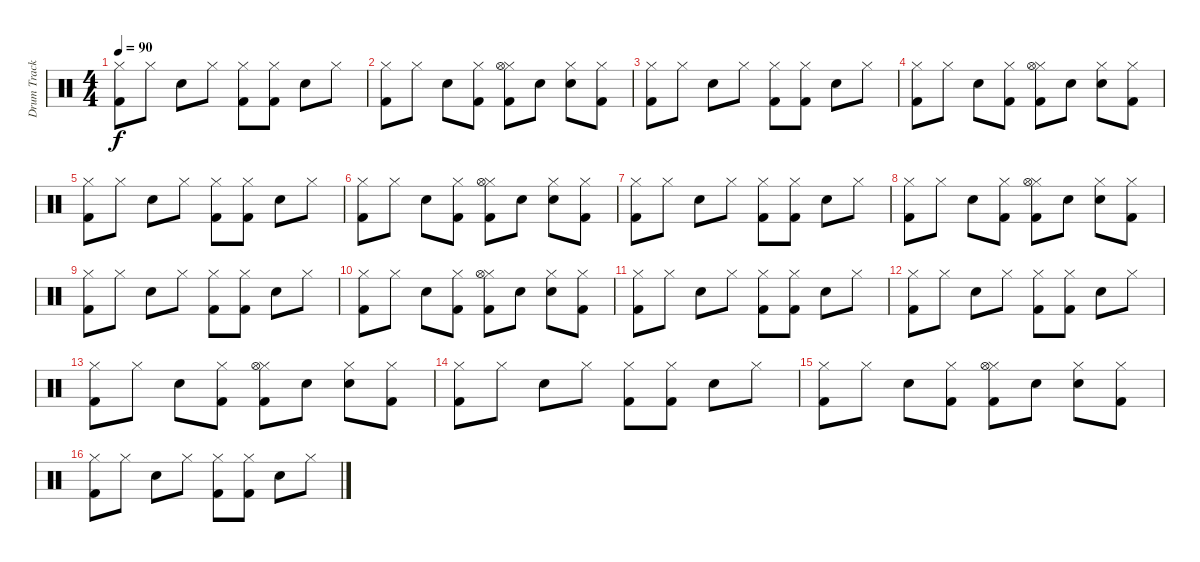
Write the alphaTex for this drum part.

\track ("Drum Track" "Drum Track") {instrument percussion}
\staff {score}
\articulation defaults
\ts (4 4)
\tempo 90
\clef neutral
\ks c
("Kick (hit) 2" "Hi-Hat (closed)").8{dy f} "Hi-Hat (closed)".8 "Electric Snare (hit)".8 "Hi-Hat (closed)".8 ("Kick (hit) 2" "Hi-Hat (closed)").8 ("Kick (hit) 2" "Hi-Hat (closed)").8 "Snare (hit) 2".8 "Hi-Hat (closed)".8 |
("Kick (hit) 2" "Hi-Hat (closed)").8 "Hi-Hat (closed)".8 "Electric Snare (hit)".8 ("Kick (hit) 2" "Hi-Hat (closed)").8 ("Kick (hit) 2" "Hi-Hat (closed)" "Hi-Hat (open)").8 "Electric Snare (hit)".8 ("Snare (hit) 2" "Hi-Hat (closed)").8 ("Kick (hit) 2" "Hi-Hat (closed)").8 |
("Kick (hit) 2" "Hi-Hat (closed)").8 "Hi-Hat (closed)".8 "Electric Snare (hit)".8 "Hi-Hat (closed)".8 ("Kick (hit) 2" "Hi-Hat (closed)").8 ("Kick (hit) 2" "Hi-Hat (closed)").8 "Snare (hit) 2".8 "Hi-Hat (closed)".8 |
("Kick (hit) 2" "Hi-Hat (closed)").8 "Hi-Hat (closed)".8 "Electric Snare (hit)".8 ("Kick (hit) 2" "Hi-Hat (closed)").8 ("Kick (hit) 2" "Hi-Hat (closed)" "Hi-Hat (open)").8 "Electric Snare (hit)".8 ("Snare (hit) 2" "Hi-Hat (closed)").8 ("Kick (hit) 2" "Hi-Hat (closed)").8 |
("Kick (hit) 2" "Hi-Hat (closed)").8 "Hi-Hat (closed)".8 "Electric Snare (hit)".8 "Hi-Hat (closed)".8 ("Kick (hit) 2" "Hi-Hat (closed)").8 ("Kick (hit) 2" "Hi-Hat (closed)").8 "Snare (hit) 2".8 "Hi-Hat (closed)".8 |
("Kick (hit) 2" "Hi-Hat (closed)").8 "Hi-Hat (closed)".8 "Electric Snare (hit)".8 ("Kick (hit) 2" "Hi-Hat (closed)").8 ("Kick (hit) 2" "Hi-Hat (closed)" "Hi-Hat (open)").8 "Electric Snare (hit)".8 ("Snare (hit) 2" "Hi-Hat (closed)").8 ("Kick (hit) 2" "Hi-Hat (closed)").8 |
("Kick (hit) 2" "Hi-Hat (closed)").8 "Hi-Hat (closed)".8 "Electric Snare (hit)".8 "Hi-Hat (closed)".8 ("Kick (hit) 2" "Hi-Hat (closed)").8 ("Kick (hit) 2" "Hi-Hat (closed)").8 "Snare (hit) 2".8 "Hi-Hat (closed)".8 |
("Kick (hit) 2" "Hi-Hat (closed)").8 "Hi-Hat (closed)".8 "Electric Snare (hit)".8 ("Kick (hit) 2" "Hi-Hat (closed)").8 ("Kick (hit) 2" "Hi-Hat (closed)" "Hi-Hat (open)").8 "Electric Snare (hit)".8 ("Snare (hit) 2" "Hi-Hat (closed)").8 ("Kick (hit) 2" "Hi-Hat (closed)").8 |
("Kick (hit) 2" "Hi-Hat (closed)").8 "Hi-Hat (closed)".8 "Electric Snare (hit)".8 "Hi-Hat (closed)".8 ("Kick (hit) 2" "Hi-Hat (closed)").8 ("Kick (hit) 2" "Hi-Hat (closed)").8 "Snare (hit) 2".8 "Hi-Hat (closed)".8 |
("Kick (hit) 2" "Hi-Hat (closed)").8 "Hi-Hat (closed)".8 "Electric Snare (hit)".8 ("Kick (hit) 2" "Hi-Hat (closed)").8 ("Kick (hit) 2" "Hi-Hat (closed)" "Hi-Hat (open)").8 "Electric Snare (hit)".8 ("Snare (hit) 2" "Hi-Hat (closed)").8 ("Kick (hit) 2" "Hi-Hat (closed)").8 |
("Kick (hit) 2" "Hi-Hat (closed)").8 "Hi-Hat (closed)".8 "Electric Snare (hit)".8 "Hi-Hat (closed)".8 ("Kick (hit) 2" "Hi-Hat (closed)").8 ("Kick (hit) 2" "Hi-Hat (closed)").8 "Snare (hit) 2".8 "Hi-Hat (closed)".8 |
("Kick (hit) 2" "Hi-Hat (closed)").8 "Hi-Hat (closed)".8 "Electric Snare (hit)".8 "Hi-Hat (closed)".8 ("Kick (hit) 2" "Hi-Hat (closed)").8 ("Kick (hit) 2" "Hi-Hat (closed)").8 "Snare (hit) 2".8 "Hi-Hat (closed)".8 |
("Kick (hit) 2" "Hi-Hat (closed)").8 "Hi-Hat (closed)".8 "Electric Snare (hit)".8 ("Kick (hit) 2" "Hi-Hat (closed)").8 ("Kick (hit) 2" "Hi-Hat (closed)" "Hi-Hat (open)").8 "Electric Snare (hit)".8 ("Snare (hit) 2" "Hi-Hat (closed)").8 ("Kick (hit) 2" "Hi-Hat (closed)").8 |
("Kick (hit) 2" "Hi-Hat (closed)").8 "Hi-Hat (closed)".8 "Electric Snare (hit)".8 "Hi-Hat (closed)".8 ("Kick (hit) 2" "Hi-Hat (closed)").8 ("Kick (hit) 2" "Hi-Hat (closed)").8 "Snare (hit) 2".8 "Hi-Hat (closed)".8 |
("Kick (hit) 2" "Hi-Hat (closed)").8 "Hi-Hat (closed)".8 "Electric Snare (hit)".8 ("Kick (hit) 2" "Hi-Hat (closed)").8 ("Kick (hit) 2" "Hi-Hat (closed)" "Hi-Hat (open)").8 "Electric Snare (hit)".8 ("Snare (hit) 2" "Hi-Hat (closed)").8 ("Kick (hit) 2" "Hi-Hat (closed)").8 |
("Kick (hit) 2" "Hi-Hat (closed)").8 "Hi-Hat (closed)".8 "Electric Snare (hit)".8 "Hi-Hat (closed)".8 ("Kick (hit) 2" "Hi-Hat (closed)").8 ("Kick (hit) 2" "Hi-Hat (closed)").8 "Snare (hit) 2".8 "Hi-Hat (closed)".8
